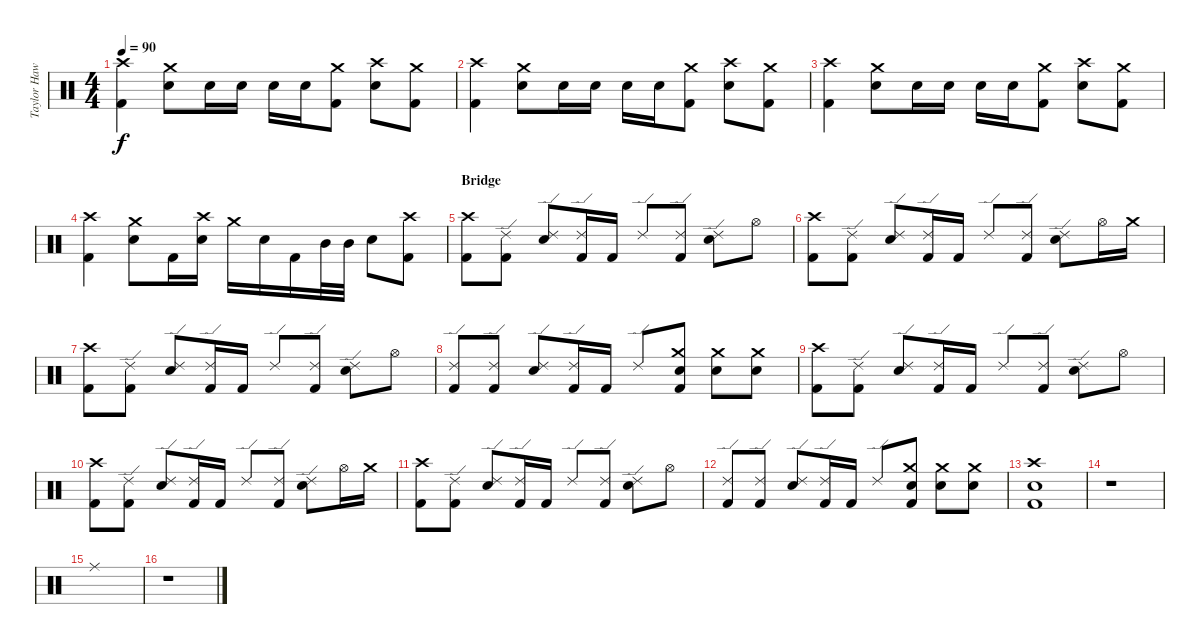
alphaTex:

\track ("Taylor Hawkins" "Taylor Haw") {instrument percussion}
\staff {score}
\articulation defaults
\ts (4 4)
\tempo 90
\clef neutral
\ks c
("Crash high (hit)" "Kick (hit) 2").4{dy f} ("Crash medium (hit)" "Electric Snare (hit)").8 "Electric Snare (hit)".16 "Electric Snare (hit)".16 "Electric Snare (hit)".16 "Electric Snare (hit)".16 ("Crash medium (hit)" "Kick (hit) 2").8 ("Crash high (hit)" "Electric Snare (hit)").8 ("Crash medium (hit)" "Kick (hit) 2").8 |
("Crash high (hit)" "Kick (hit) 2").4 ("Crash medium (hit)" "Electric Snare (hit)").8 "Electric Snare (hit)".16 "Electric Snare (hit)".16 "Electric Snare (hit)".16 "Electric Snare (hit)".16 ("Crash medium (hit)" "Kick (hit) 2").8 ("Crash high (hit)" "Electric Snare (hit)").8 ("Crash medium (hit)" "Kick (hit) 2").8 |
("Crash high (hit)" "Kick (hit) 2").4 ("Crash medium (hit)" "Electric Snare (hit)").8 "Electric Snare (hit)".16 "Electric Snare (hit)".16 "Electric Snare (hit)".16 "Electric Snare (hit)".16 ("Crash medium (hit)" "Kick (hit) 2").8 ("Crash high (hit)" "Electric Snare (hit)").8 ("Crash medium (hit)" "Kick (hit) 2").8 |
("Crash high (hit)" "Kick (hit) 2").4 ("Crash medium (hit)" "Electric Snare (hit)").8 "Kick (hit) 2".16 ("Crash high (hit)" "Electric Snare (hit)").16 "Crash medium (hit)".16 "Electric Snare (hit)".16 "Kick (hit) 2".16 "Mid Tom (hit)".32 "Mid Tom (hit)".32 "Electric Snare (hit)".8 ("Crash high (hit)" "Kick (hit) 2").8 |
\section ("" "Bridge")
("Crash high (hit)" "Kick (hit) 2").8 ("Ride (edge) 2" "Kick (hit) 2").8 ("Ride (edge) 2" "Electric Snare (hit)").8 ("Ride (edge) 2" "Kick (hit) 2").16 "Kick (hit) 2".16 "Ride (edge) 2".8 ("Ride (edge) 2" "Kick (hit) 2").8 ("Ride (edge) 2" "Electric Snare (hit)").8 "Hi-Hat (open)".8 |
("Crash high (hit)" "Kick (hit) 2").8 ("Ride (edge) 2" "Kick (hit) 2").8 ("Ride (edge) 2" "Electric Snare (hit)").8 ("Ride (edge) 2" "Kick (hit) 2").16 "Kick (hit) 2".16 "Ride (edge) 2".8 ("Ride (edge) 2" "Kick (hit) 2").8 ("Ride (edge) 2" "Electric Snare (hit)").8 "Hi-Hat (open)".16 "Crash medium (hit)".16 |
("Crash high (hit)" "Kick (hit) 2").8 ("Ride (edge) 2" "Kick (hit) 2").8 ("Ride (edge) 2" "Electric Snare (hit)").8 ("Ride (edge) 2" "Kick (hit) 2").16 "Kick (hit) 2".16 "Ride (edge) 2".8 ("Ride (edge) 2" "Kick (hit) 2").8 ("Ride (edge) 2" "Electric Snare (hit)").8 "Hi-Hat (open)".8 |
("Ride (edge) 2" "Kick (hit) 2").8 ("Ride (edge) 2" "Kick (hit) 2").8 ("Ride (edge) 2" "Electric Snare (hit)").8 ("Ride (edge) 2" "Kick (hit) 2").16 "Kick (hit) 2".16 "Ride (edge) 2".8 ("Crash medium (hit)" "Electric Snare (hit)" "Kick (hit) 2").8 ("Crash medium (hit)" "Electric Snare (hit)").8 ("Crash medium (hit)" "Electric Snare (hit)").8 |
("Crash high (hit)" "Kick (hit) 2").8 ("Ride (edge) 2" "Kick (hit) 2").8 ("Ride (edge) 2" "Electric Snare (hit)").8 ("Ride (edge) 2" "Kick (hit) 2").16 "Kick (hit) 2".16 "Ride (edge) 2".8 ("Ride (edge) 2" "Kick (hit) 2").8 ("Ride (edge) 2" "Electric Snare (hit)").8 "Hi-Hat (open)".8 |
("Crash high (hit)" "Kick (hit) 2").8 ("Ride (edge) 2" "Kick (hit) 2").8 ("Ride (edge) 2" "Electric Snare (hit)").8 ("Ride (edge) 2" "Kick (hit) 2").16 "Kick (hit) 2".16 "Ride (edge) 2".8 ("Ride (edge) 2" "Kick (hit) 2").8 ("Ride (edge) 2" "Electric Snare (hit)").8 "Hi-Hat (open)".16 "Crash medium (hit)".16 |
("Crash high (hit)" "Kick (hit) 2").8 ("Ride (edge) 2" "Kick (hit) 2").8 ("Ride (edge) 2" "Electric Snare (hit)").8 ("Ride (edge) 2" "Kick (hit) 2").16 "Kick (hit) 2".16 "Ride (edge) 2".8 ("Ride (edge) 2" "Kick (hit) 2").8 ("Ride (edge) 2" "Electric Snare (hit)").8 "Hi-Hat (open)".8 |
("Ride (edge) 2" "Kick (hit) 2").8 ("Ride (edge) 2" "Kick (hit) 2").8 ("Ride (edge) 2" "Electric Snare (hit)").8 ("Ride (edge) 2" "Kick (hit) 2").16 "Kick (hit) 2".16 "Ride (edge) 2".8 ("Crash medium (hit)" "Electric Snare (hit)" "Kick (hit) 2").8 ("Crash medium (hit)" "Electric Snare (hit)").8 ("Crash medium (hit)" "Electric Snare (hit)").8 |
("Crash high (hit)" "Electric Snare (hit)" "Kick (hit) 2").1 |
r.1 |
"Ride (middle)".1 |
r.1
